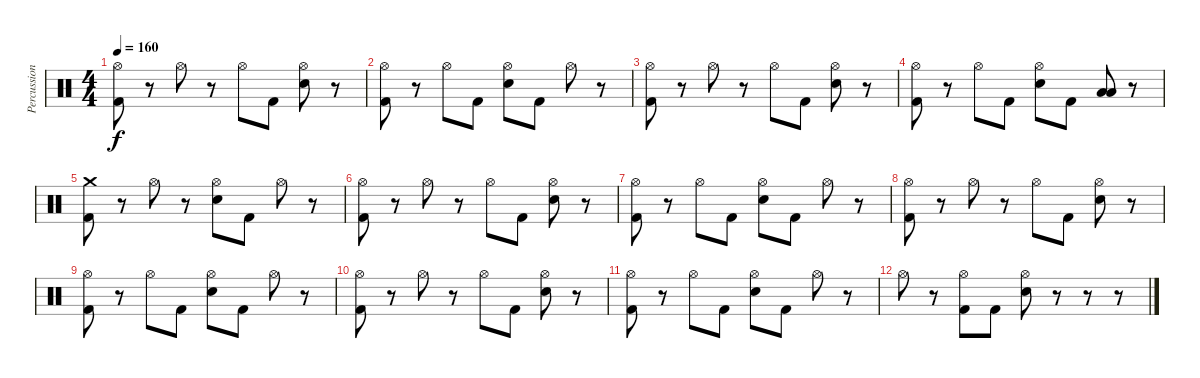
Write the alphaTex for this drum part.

\track ("Percussion" "Percussion") {instrument percussion}
\staff {score}
\articulation defaults
\ts (4 4)
\tempo 160
\clef neutral
\ks c
("Hi-Hat (open)" "Kick (hit) 2").8{dy f} r.8 "Hi-Hat (open)".8 r.8 "Hi-Hat (open)".8 "Kick (hit) 2".8 ("Hi-Hat (open)" "Electric Snare (hit)").8 r.8 |
("Hi-Hat (open)" "Kick (hit) 2").8 r.8 "Hi-Hat (open)".8 "Kick (hit) 2".8 ("Hi-Hat (open)" "Electric Snare (hit)").8 "Kick (hit) 2".8 "Hi-Hat (open)".8 r.8 |
("Hi-Hat (open)" "Kick (hit) 2").8 r.8 "Hi-Hat (open)".8 r.8 "Hi-Hat (open)".8 "Kick (hit) 2".8 ("Hi-Hat (open)" "Electric Snare (hit)").8 r.8 |
("Hi-Hat (open)" "Kick (hit) 2").8 r.8 "Hi-Hat (open)".8 "Kick (hit) 2".8 ("Hi-Hat (open)" "Electric Snare (hit)").8 "Kick (hit) 2".8 ("Low Tom (hit)" "Low Tom (hit)").8 r.8 |
("Crash medium (hit)" "Kick (hit) 2").8 r.8 "Hi-Hat (open)".8 r.8 ("Hi-Hat (open)" "Electric Snare (hit)").8 "Kick (hit) 2".8 "Hi-Hat (open)".8 r.8 |
("Hi-Hat (open)" "Kick (hit) 2").8 r.8 "Hi-Hat (open)".8 r.8 "Hi-Hat (open)".8 "Kick (hit) 2".8 ("Hi-Hat (open)" "Electric Snare (hit)").8 r.8 |
("Hi-Hat (open)" "Kick (hit) 2").8 r.8 "Hi-Hat (open)".8 "Kick (hit) 2".8 ("Hi-Hat (open)" "Electric Snare (hit)").8 "Kick (hit) 2".8 "Hi-Hat (open)".8 r.8 |
("Hi-Hat (open)" "Kick (hit) 2").8 r.8 "Hi-Hat (open)".8 r.8 "Hi-Hat (open)".8 "Kick (hit) 2".8 ("Hi-Hat (open)" "Electric Snare (hit)").8 r.8 |
("Hi-Hat (open)" "Kick (hit) 2").8 r.8 "Hi-Hat (open)".8 "Kick (hit) 2".8 ("Hi-Hat (open)" "Electric Snare (hit)").8 "Kick (hit) 2".8 "Hi-Hat (open)".8 r.8 |
("Hi-Hat (open)" "Kick (hit) 2").8 r.8 "Hi-Hat (open)".8 r.8 "Hi-Hat (open)".8 "Kick (hit) 2".8 ("Hi-Hat (open)" "Electric Snare (hit)").8 r.8 |
("Hi-Hat (open)" "Kick (hit) 2").8 r.8 "Hi-Hat (open)".8 "Kick (hit) 2".8 ("Hi-Hat (open)" "Electric Snare (hit)").8 "Kick (hit) 2".8 "Hi-Hat (open)".8 r.8 |
"Hi-Hat (open)".8 r.8 ("Hi-Hat (open)" "Kick (hit) 2").8 "Kick (hit) 2".8 ("Hi-Hat (open)" "Electric Snare (hit)").8 r.8 r.8 r.8
